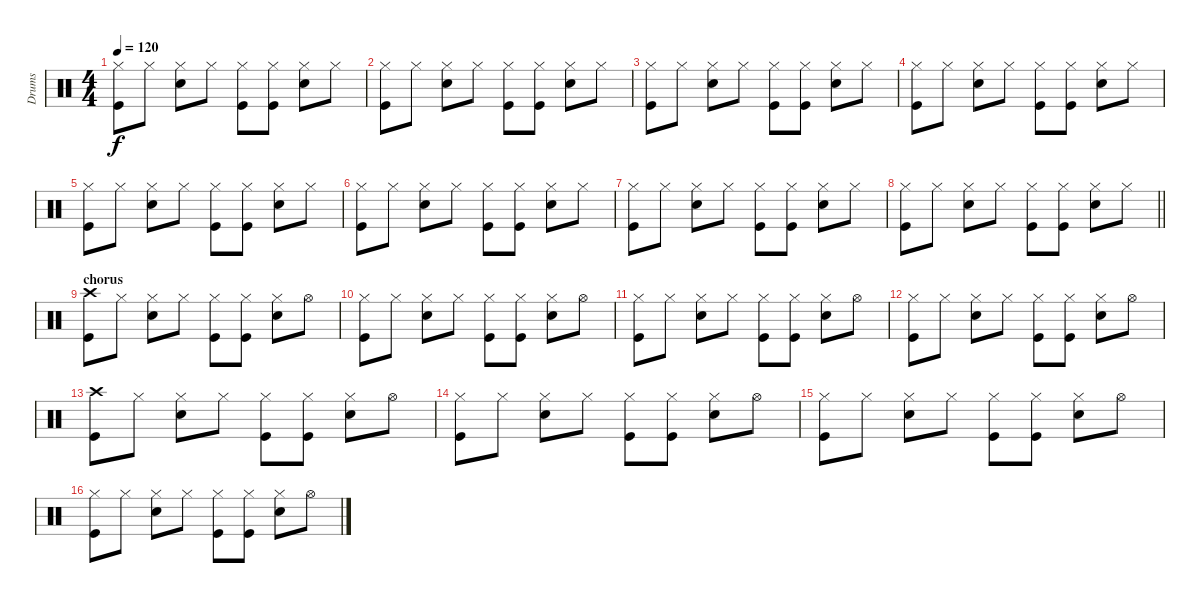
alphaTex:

\track ("Drums" "Drums") {instrument percussion}
\staff {score}
\articulation defaults
\ts (4 4)
\tempo 120
\clef neutral
\ks c
("Hi-Hat (closed)" "Kick (hit)").8{dy f} "Hi-Hat (closed)".8 ("Hi-Hat (closed)" "Electric Snare (hit)").8 "Hi-Hat (closed)".8 ("Hi-Hat (closed)" "Kick (hit)").8 ("Hi-Hat (closed)" "Kick (hit)").8 ("Hi-Hat (closed)" "Electric Snare (hit)").8 "Hi-Hat (closed)".8 |
("Hi-Hat (closed)" "Kick (hit)").8 "Hi-Hat (closed)".8 ("Hi-Hat (closed)" "Electric Snare (hit)").8 "Hi-Hat (closed)".8 ("Hi-Hat (closed)" "Kick (hit)").8 ("Hi-Hat (closed)" "Kick (hit)").8 ("Hi-Hat (closed)" "Electric Snare (hit)").8 "Hi-Hat (closed)".8 |
("Hi-Hat (closed)" "Kick (hit)").8 "Hi-Hat (closed)".8 ("Hi-Hat (closed)" "Electric Snare (hit)").8 "Hi-Hat (closed)".8 ("Hi-Hat (closed)" "Kick (hit)").8 ("Hi-Hat (closed)" "Kick (hit)").8 ("Hi-Hat (closed)" "Electric Snare (hit)").8 "Hi-Hat (closed)".8 |
("Hi-Hat (closed)" "Kick (hit)").8 "Hi-Hat (closed)".8 ("Hi-Hat (closed)" "Electric Snare (hit)").8 "Hi-Hat (closed)".8 ("Hi-Hat (closed)" "Kick (hit)").8 ("Hi-Hat (closed)" "Kick (hit)").8 ("Hi-Hat (closed)" "Electric Snare (hit)").8 "Hi-Hat (closed)".8 |
("Hi-Hat (closed)" "Kick (hit)").8 "Hi-Hat (closed)".8 ("Hi-Hat (closed)" "Electric Snare (hit)").8 "Hi-Hat (closed)".8 ("Hi-Hat (closed)" "Kick (hit)").8 ("Hi-Hat (closed)" "Kick (hit)").8 ("Hi-Hat (closed)" "Electric Snare (hit)").8 "Hi-Hat (closed)".8 |
("Hi-Hat (closed)" "Kick (hit)").8 "Hi-Hat (closed)".8 ("Hi-Hat (closed)" "Electric Snare (hit)").8 "Hi-Hat (closed)".8 ("Hi-Hat (closed)" "Kick (hit)").8 ("Hi-Hat (closed)" "Kick (hit)").8 ("Hi-Hat (closed)" "Electric Snare (hit)").8 "Hi-Hat (closed)".8 |
("Hi-Hat (closed)" "Kick (hit)").8 "Hi-Hat (closed)".8 ("Hi-Hat (closed)" "Electric Snare (hit)").8 "Hi-Hat (closed)".8 ("Hi-Hat (closed)" "Kick (hit)").8 ("Hi-Hat (closed)" "Kick (hit)").8 ("Hi-Hat (closed)" "Electric Snare (hit)").8 "Hi-Hat (closed)".8 |
\barLineRight lightlight
("Hi-Hat (closed)" "Kick (hit)").8 "Hi-Hat (closed)".8 ("Hi-Hat (closed)" "Electric Snare (hit)").8 "Hi-Hat (closed)".8 ("Hi-Hat (closed)" "Kick (hit)").8 ("Hi-Hat (closed)" "Kick (hit)").8 ("Hi-Hat (closed)" "Electric Snare (hit)").8 "Hi-Hat (closed)".8 |
\section ("" "chorus")
("Crash high (hit)" "Kick (hit)").8 "Hi-Hat (closed)".8 ("Hi-Hat (closed)" "Electric Snare (hit)").8 "Hi-Hat (closed)".8 ("Hi-Hat (closed)" "Kick (hit)").8 ("Hi-Hat (closed)" "Kick (hit)").8 ("Hi-Hat (closed)" "Electric Snare (hit)").8 "Hi-Hat (open)".8 |
("Hi-Hat (closed)" "Kick (hit)").8 "Hi-Hat (closed)".8 ("Hi-Hat (closed)" "Electric Snare (hit)").8 "Hi-Hat (closed)".8 ("Hi-Hat (closed)" "Kick (hit)").8 ("Hi-Hat (closed)" "Kick (hit)").8 ("Hi-Hat (closed)" "Electric Snare (hit)").8 "Hi-Hat (open)".8 |
("Hi-Hat (closed)" "Kick (hit)").8 "Hi-Hat (closed)".8 ("Hi-Hat (closed)" "Electric Snare (hit)").8 "Hi-Hat (closed)".8 ("Hi-Hat (closed)" "Kick (hit)").8 ("Hi-Hat (closed)" "Kick (hit)").8 ("Hi-Hat (closed)" "Electric Snare (hit)").8 "Hi-Hat (open)".8 |
("Hi-Hat (closed)" "Kick (hit)").8 "Hi-Hat (closed)".8 ("Hi-Hat (closed)" "Electric Snare (hit)").8 "Hi-Hat (closed)".8 ("Hi-Hat (closed)" "Kick (hit)").8 ("Hi-Hat (closed)" "Kick (hit)").8 ("Hi-Hat (closed)" "Electric Snare (hit)").8 "Hi-Hat (open)".8 |
("Crash high (hit)" "Kick (hit)").8 "Hi-Hat (closed)".8 ("Hi-Hat (closed)" "Electric Snare (hit)").8 "Hi-Hat (closed)".8 ("Hi-Hat (closed)" "Kick (hit)").8 ("Hi-Hat (closed)" "Kick (hit)").8 ("Hi-Hat (closed)" "Electric Snare (hit)").8 "Hi-Hat (open)".8 |
("Hi-Hat (closed)" "Kick (hit)").8 "Hi-Hat (closed)".8 ("Hi-Hat (closed)" "Electric Snare (hit)").8 "Hi-Hat (closed)".8 ("Hi-Hat (closed)" "Kick (hit)").8 ("Hi-Hat (closed)" "Kick (hit)").8 ("Hi-Hat (closed)" "Electric Snare (hit)").8 "Hi-Hat (open)".8 |
("Hi-Hat (closed)" "Kick (hit)").8 "Hi-Hat (closed)".8 ("Hi-Hat (closed)" "Electric Snare (hit)").8 "Hi-Hat (closed)".8 ("Hi-Hat (closed)" "Kick (hit)").8 ("Hi-Hat (closed)" "Kick (hit)").8 ("Hi-Hat (closed)" "Electric Snare (hit)").8 "Hi-Hat (open)".8 |
("Hi-Hat (closed)" "Kick (hit)").8 "Hi-Hat (closed)".8 ("Hi-Hat (closed)" "Electric Snare (hit)").8 "Hi-Hat (closed)".8 ("Hi-Hat (closed)" "Kick (hit)").8 ("Hi-Hat (closed)" "Kick (hit)").8 ("Hi-Hat (closed)" "Electric Snare (hit)").8 "Hi-Hat (open)".8
